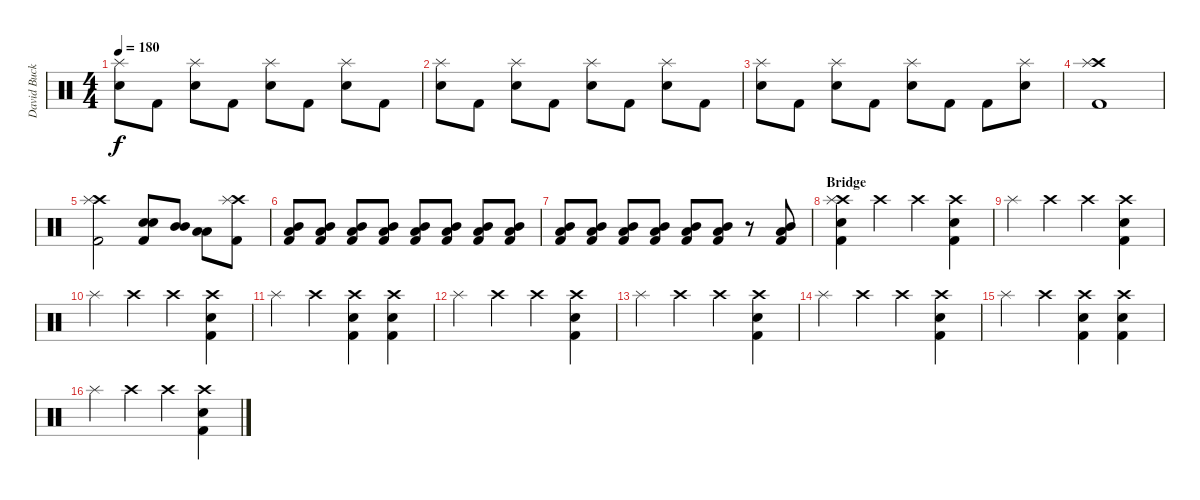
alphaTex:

\track ("David Buckner" "David Buck") {instrument percussion}
\staff {score}
\articulation defaults
\ts (4 4)
\tempo 180
\clef neutral
\ks c
("Splash (hit)" "Snare (hit) 2").8{dy f} "Kick (hit) 2".8 ("Splash (hit)" "Snare (hit) 2").8 "Kick (hit) 2".8 ("Splash (hit)" "Snare (hit) 2").8 "Kick (hit) 2".8 ("Splash (hit)" "Snare (hit) 2").8 "Kick (hit) 2".8 |
("Splash (hit)" "Snare (hit) 2").8 "Kick (hit) 2".8 ("Splash (hit)" "Snare (hit) 2").8 "Kick (hit) 2".8 ("Splash (hit)" "Snare (hit) 2").8 "Kick (hit) 2".8 ("Splash (hit)" "Snare (hit) 2").8 "Kick (hit) 2".8 |
("Splash (hit)" "Snare (hit) 2").8 "Kick (hit) 2".8 ("Splash (hit)" "Snare (hit) 2").8 "Kick (hit) 2".8 ("Splash (hit)" "Snare (hit) 2").8 "Kick (hit) 2".8 "Kick (hit) 2".8 ("Splash (hit)" "Snare (hit) 2").8 |
("Crash high (hit)" "Splash (hit)" "Kick (hit) 2").1 |
("Crash high (hit)" "Splash (hit)" "Kick (hit) 2").2 ("Snare (hit) 2" "Snare (hit) 2" "Kick (hit) 2").8 ("Mid Tom (hit)" "Mid Tom (hit)").8 ("Low Tom (hit)" "Low Tom (hit)").8 ("Crash high (hit)" "Splash (hit)" "Kick (hit) 2").8 |
("Mid Tom (hit)" "Low Tom (hit)" "Kick (hit) 2").8 ("Mid Tom (hit)" "Low Tom (hit)" "Kick (hit) 2").8 ("Mid Tom (hit)" "Low Tom (hit)" "Kick (hit) 2").8 ("Mid Tom (hit)" "Low Tom (hit)" "Kick (hit) 2").8 ("Mid Tom (hit)" "Low Tom (hit)" "Kick (hit) 2").8 ("Mid Tom (hit)" "Low Tom (hit)" "Kick (hit) 2").8 ("Mid Tom (hit)" "Low Tom (hit)" "Kick (hit) 2").8 ("Mid Tom (hit)" "Low Tom (hit)" "Kick (hit) 2").8 |
("Mid Tom (hit)" "Low Tom (hit)" "Kick (hit) 2").8 ("Mid Tom (hit)" "Low Tom (hit)" "Kick (hit) 2").8 ("Mid Tom (hit)" "Low Tom (hit)" "Kick (hit) 2").8 ("Mid Tom (hit)" "Low Tom (hit)" "Kick (hit) 2").8 ("Mid Tom (hit)" "Low Tom (hit)" "Kick (hit) 2").8 ("Mid Tom (hit)" "Low Tom (hit)" "Kick (hit) 2").8 r.8 ("Mid Tom (hit)" "Low Tom (hit)" "Kick (hit) 2").8 |
\section ("" "Bridge")
("Crash high (hit)" "Splash (hit)" "Snare (hit) 2" "Kick (hit) 2").4 "Crash high (hit)".4 "Crash high (hit)".4 ("Crash high (hit)" "Snare (hit) 2" "Kick (hit) 2").4 |
"Splash (hit)".4 "Crash high (hit)".4 "Crash high (hit)".4 ("Crash high (hit)" "Snare (hit) 2" "Kick (hit) 2").4 |
"Splash (hit)".4 "Crash high (hit)".4 "Crash high (hit)".4 ("Crash high (hit)" "Snare (hit) 2" "Kick (hit) 2").4 |
"Splash (hit)".4 "Crash high (hit)".4 ("Crash high (hit)" "Snare (hit) 2" "Kick (hit) 2").4 ("Crash high (hit)" "Snare (hit) 2" "Kick (hit) 2").4 |
"Splash (hit)".4 "Crash high (hit)".4 "Crash high (hit)".4 ("Crash high (hit)" "Snare (hit) 2" "Kick (hit) 2").4 |
"Splash (hit)".4 "Crash high (hit)".4 "Crash high (hit)".4 ("Crash high (hit)" "Snare (hit) 2" "Kick (hit) 2").4 |
"Splash (hit)".4 "Crash high (hit)".4 "Crash high (hit)".4 ("Crash high (hit)" "Snare (hit) 2" "Kick (hit) 2").4 |
"Splash (hit)".4 "Crash high (hit)".4 ("Crash high (hit)" "Snare (hit) 2" "Kick (hit) 2").4 ("Crash high (hit)" "Snare (hit) 2" "Kick (hit) 2").4 |
"Splash (hit)".4 "Crash high (hit)".4 "Crash high (hit)".4 ("Crash high (hit)" "Snare (hit) 2" "Kick (hit) 2").4
